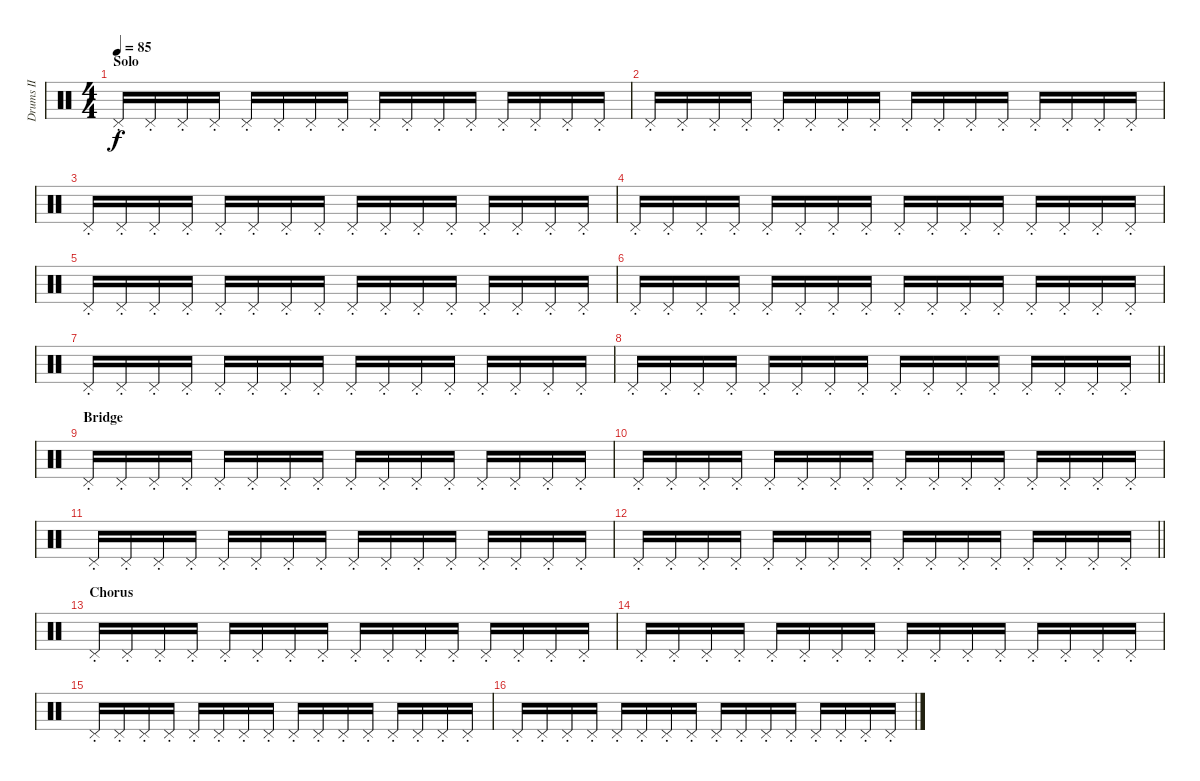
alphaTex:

\track ("Drums II" "Drums II") {instrument percussion}
\staff {score}
\articulation defaults
\ts (4 4)
\section ("" "Solo")
\tempo 85
\clef neutral
\ks c "Pedal Hi-Hat (hit)"{st}.16{dy f} "Pedal Hi-Hat (hit)"{st}.16 "Pedal Hi-Hat (hit)"{st}.16 "Pedal Hi-Hat (hit)"{st}.16 "Pedal Hi-Hat (hit)"{st}.16 "Pedal Hi-Hat (hit)"{st}.16 "Pedal Hi-Hat (hit)"{st}.16 "Pedal Hi-Hat (hit)"{st}.16 "Pedal Hi-Hat (hit)"{st}.16 "Pedal Hi-Hat (hit)"{st}.16 "Pedal Hi-Hat (hit)"{st}.16 "Pedal Hi-Hat (hit)"{st}.16 "Pedal Hi-Hat (hit)"{st}.16 "Pedal Hi-Hat (hit)"{st}.16 "Pedal Hi-Hat (hit)"{st}.16 "Pedal Hi-Hat (hit)"{st}.16
|
"Pedal Hi-Hat (hit)"{st}.16 "Pedal Hi-Hat (hit)"{st}.16 "Pedal Hi-Hat (hit)"{st}.16 "Pedal Hi-Hat (hit)"{st}.16 "Pedal Hi-Hat (hit)"{st}.16 "Pedal Hi-Hat (hit)"{st}.16 "Pedal Hi-Hat (hit)"{st}.16 "Pedal Hi-Hat (hit)"{st}.16 "Pedal Hi-Hat (hit)"{st}.16 "Pedal Hi-Hat (hit)"{st}.16 "Pedal Hi-Hat (hit)"{st}.16 "Pedal Hi-Hat (hit)"{st}.16 "Pedal Hi-Hat (hit)"{st}.16 "Pedal Hi-Hat (hit)"{st}.16 "Pedal Hi-Hat (hit)"{st}.16 "Pedal Hi-Hat (hit)"{st}.16 |
"Pedal Hi-Hat (hit)"{st}.16 "Pedal Hi-Hat (hit)"{st}.16 "Pedal Hi-Hat (hit)"{st}.16 "Pedal Hi-Hat (hit)"{st}.16 "Pedal Hi-Hat (hit)"{st}.16 "Pedal Hi-Hat (hit)"{st}.16 "Pedal Hi-Hat (hit)"{st}.16 "Pedal Hi-Hat (hit)"{st}.16 "Pedal Hi-Hat (hit)"{st}.16 "Pedal Hi-Hat (hit)"{st}.16 "Pedal Hi-Hat (hit)"{st}.16 "Pedal Hi-Hat (hit)"{st}.16 "Pedal Hi-Hat (hit)"{st}.16 "Pedal Hi-Hat (hit)"{st}.16 "Pedal Hi-Hat (hit)"{st}.16 "Pedal Hi-Hat (hit)"{st}.16 |
"Pedal Hi-Hat (hit)"{st}.16 "Pedal Hi-Hat (hit)"{st}.16 "Pedal Hi-Hat (hit)"{st}.16 "Pedal Hi-Hat (hit)"{st}.16 "Pedal Hi-Hat (hit)"{st}.16 "Pedal Hi-Hat (hit)"{st}.16 "Pedal Hi-Hat (hit)"{st}.16 "Pedal Hi-Hat (hit)"{st}.16 "Pedal Hi-Hat (hit)"{st}.16 "Pedal Hi-Hat (hit)"{st}.16 "Pedal Hi-Hat (hit)"{st}.16 "Pedal Hi-Hat (hit)"{st}.16 "Pedal Hi-Hat (hit)"{st}.16 "Pedal Hi-Hat (hit)"{st}.16 "Pedal Hi-Hat (hit)"{st}.16 "Pedal Hi-Hat (hit)"{st}.16 |
"Pedal Hi-Hat (hit)"{st}.16 "Pedal Hi-Hat (hit)"{st}.16 "Pedal Hi-Hat (hit)"{st}.16 "Pedal Hi-Hat (hit)"{st}.16 "Pedal Hi-Hat (hit)"{st}.16 "Pedal Hi-Hat (hit)"{st}.16 "Pedal Hi-Hat (hit)"{st}.16 "Pedal Hi-Hat (hit)"{st}.16 "Pedal Hi-Hat (hit)"{st}.16 "Pedal Hi-Hat (hit)"{st}.16 "Pedal Hi-Hat (hit)"{st}.16 "Pedal Hi-Hat (hit)"{st}.16 "Pedal Hi-Hat (hit)"{st}.16 "Pedal Hi-Hat (hit)"{st}.16 "Pedal Hi-Hat (hit)"{st}.16 "Pedal Hi-Hat (hit)"{st}.16 |
"Pedal Hi-Hat (hit)"{st}.16 "Pedal Hi-Hat (hit)"{st}.16 "Pedal Hi-Hat (hit)"{st}.16 "Pedal Hi-Hat (hit)"{st}.16 "Pedal Hi-Hat (hit)"{st}.16 "Pedal Hi-Hat (hit)"{st}.16 "Pedal Hi-Hat (hit)"{st}.16 "Pedal Hi-Hat (hit)"{st}.16 "Pedal Hi-Hat (hit)"{st}.16 "Pedal Hi-Hat (hit)"{st}.16 "Pedal Hi-Hat (hit)"{st}.16 "Pedal Hi-Hat (hit)"{st}.16 "Pedal Hi-Hat (hit)"{st}.16 "Pedal Hi-Hat (hit)"{st}.16 "Pedal Hi-Hat (hit)"{st}.16 "Pedal Hi-Hat (hit)"{st}.16 |
"Pedal Hi-Hat (hit)"{st}.16 "Pedal Hi-Hat (hit)"{st}.16 "Pedal Hi-Hat (hit)"{st}.16 "Pedal Hi-Hat (hit)"{st}.16 "Pedal Hi-Hat (hit)"{st}.16 "Pedal Hi-Hat (hit)"{st}.16 "Pedal Hi-Hat (hit)"{st}.16 "Pedal Hi-Hat (hit)"{st}.16 "Pedal Hi-Hat (hit)"{st}.16 "Pedal Hi-Hat (hit)"{st}.16 "Pedal Hi-Hat (hit)"{st}.16 "Pedal Hi-Hat (hit)"{st}.16 "Pedal Hi-Hat (hit)"{st}.16 "Pedal Hi-Hat (hit)"{st}.16 "Pedal Hi-Hat (hit)"{st}.16 "Pedal Hi-Hat (hit)"{st}.16 |
\barLineRight lightlight "Pedal Hi-Hat (hit)"{st}.16 "Pedal Hi-Hat (hit)"{st}.16 "Pedal Hi-Hat (hit)"{st}.16 "Pedal Hi-Hat (hit)"{st}.16 "Pedal Hi-Hat (hit)"{st}.16 "Pedal Hi-Hat (hit)"{st}.16 "Pedal Hi-Hat (hit)"{st}.16 "Pedal Hi-Hat (hit)"{st}.16 "Pedal Hi-Hat (hit)"{st}.16 "Pedal Hi-Hat (hit)"{st}.16 "Pedal Hi-Hat (hit)"{st}.16 "Pedal Hi-Hat (hit)"{st}.16 "Pedal Hi-Hat (hit)"{st}.16 "Pedal Hi-Hat (hit)"{st}.16 "Pedal Hi-Hat (hit)"{st}.16 "Pedal Hi-Hat (hit)"{st}.16
|
\section ("" "Bridge")
"Pedal Hi-Hat (hit)"{st}.16 "Pedal Hi-Hat (hit)"{st}.16 "Pedal Hi-Hat (hit)"{st}.16 "Pedal Hi-Hat (hit)"{st}.16 "Pedal Hi-Hat (hit)"{st}.16 "Pedal Hi-Hat (hit)"{st}.16 "Pedal Hi-Hat (hit)"{st}.16 "Pedal Hi-Hat (hit)"{st}.16 "Pedal Hi-Hat (hit)"{st}.16 "Pedal Hi-Hat (hit)"{st}.16 "Pedal Hi-Hat (hit)"{st}.16 "Pedal Hi-Hat (hit)"{st}.16 "Pedal Hi-Hat (hit)"{st}.16 "Pedal Hi-Hat (hit)"{st}.16 "Pedal Hi-Hat (hit)"{st}.16 "Pedal Hi-Hat (hit)"{st}.16 |
"Pedal Hi-Hat (hit)"{st}.16 "Pedal Hi-Hat (hit)"{st}.16 "Pedal Hi-Hat (hit)"{st}.16 "Pedal Hi-Hat (hit)"{st}.16 "Pedal Hi-Hat (hit)"{st}.16 "Pedal Hi-Hat (hit)"{st}.16 "Pedal Hi-Hat (hit)"{st}.16 "Pedal Hi-Hat (hit)"{st}.16 "Pedal Hi-Hat (hit)"{st}.16 "Pedal Hi-Hat (hit)"{st}.16 "Pedal Hi-Hat (hit)"{st}.16 "Pedal Hi-Hat (hit)"{st}.16 "Pedal Hi-Hat (hit)"{st}.16 "Pedal Hi-Hat (hit)"{st}.16 "Pedal Hi-Hat (hit)"{st}.16 "Pedal Hi-Hat (hit)"{st}.16 |
"Pedal Hi-Hat (hit)"{st}.16 "Pedal Hi-Hat (hit)"{st}.16 "Pedal Hi-Hat (hit)"{st}.16 "Pedal Hi-Hat (hit)"{st}.16 "Pedal Hi-Hat (hit)"{st}.16 "Pedal Hi-Hat (hit)"{st}.16 "Pedal Hi-Hat (hit)"{st}.16 "Pedal Hi-Hat (hit)"{st}.16 "Pedal Hi-Hat (hit)"{st}.16 "Pedal Hi-Hat (hit)"{st}.16 "Pedal Hi-Hat (hit)"{st}.16 "Pedal Hi-Hat (hit)"{st}.16 "Pedal Hi-Hat (hit)"{st}.16 "Pedal Hi-Hat (hit)"{st}.16 "Pedal Hi-Hat (hit)"{st}.16 "Pedal Hi-Hat (hit)"{st}.16 |
\barLineRight lightlight "Pedal Hi-Hat (hit)"{st}.16 "Pedal Hi-Hat (hit)"{st}.16 "Pedal Hi-Hat (hit)"{st}.16 "Pedal Hi-Hat (hit)"{st}.16 "Pedal Hi-Hat (hit)"{st}.16 "Pedal Hi-Hat (hit)"{st}.16 "Pedal Hi-Hat (hit)"{st}.16 "Pedal Hi-Hat (hit)"{st}.16 "Pedal Hi-Hat (hit)"{st}.16 "Pedal Hi-Hat (hit)"{st}.16 "Pedal Hi-Hat (hit)"{st}.16 "Pedal Hi-Hat (hit)"{st}.16 "Pedal Hi-Hat (hit)"{st}.16 "Pedal Hi-Hat (hit)"{st}.16 "Pedal Hi-Hat (hit)"{st}.16 "Pedal Hi-Hat (hit)"{st}.16
|
\section ("" "Chorus")
"Pedal Hi-Hat (hit)"{st}.16 "Pedal Hi-Hat (hit)"{st}.16 "Pedal Hi-Hat (hit)"{st}.16 "Pedal Hi-Hat (hit)"{st}.16 "Pedal Hi-Hat (hit)"{st}.16 "Pedal Hi-Hat (hit)"{st}.16 "Pedal Hi-Hat (hit)"{st}.16 "Pedal Hi-Hat (hit)"{st}.16 "Pedal Hi-Hat (hit)"{st}.16 "Pedal Hi-Hat (hit)"{st}.16 "Pedal Hi-Hat (hit)"{st}.16 "Pedal Hi-Hat (hit)"{st}.16 "Pedal Hi-Hat (hit)"{st}.16 "Pedal Hi-Hat (hit)"{st}.16 "Pedal Hi-Hat (hit)"{st}.16 "Pedal Hi-Hat (hit)"{st}.16 |
"Pedal Hi-Hat (hit)"{st}.16 "Pedal Hi-Hat (hit)"{st}.16 "Pedal Hi-Hat (hit)"{st}.16 "Pedal Hi-Hat (hit)"{st}.16 "Pedal Hi-Hat (hit)"{st}.16 "Pedal Hi-Hat (hit)"{st}.16 "Pedal Hi-Hat (hit)"{st}.16 "Pedal Hi-Hat (hit)"{st}.16 "Pedal Hi-Hat (hit)"{st}.16 "Pedal Hi-Hat (hit)"{st}.16 "Pedal Hi-Hat (hit)"{st}.16 "Pedal Hi-Hat (hit)"{st}.16 "Pedal Hi-Hat (hit)"{st}.16 "Pedal Hi-Hat (hit)"{st}.16 "Pedal Hi-Hat (hit)"{st}.16 "Pedal Hi-Hat (hit)"{st}.16 |
"Pedal Hi-Hat (hit)"{st}.16 "Pedal Hi-Hat (hit)"{st}.16 "Pedal Hi-Hat (hit)"{st}.16 "Pedal Hi-Hat (hit)"{st}.16 "Pedal Hi-Hat (hit)"{st}.16 "Pedal Hi-Hat (hit)"{st}.16 "Pedal Hi-Hat (hit)"{st}.16 "Pedal Hi-Hat (hit)"{st}.16 "Pedal Hi-Hat (hit)"{st}.16 "Pedal Hi-Hat (hit)"{st}.16 "Pedal Hi-Hat (hit)"{st}.16 "Pedal Hi-Hat (hit)"{st}.16 "Pedal Hi-Hat (hit)"{st}.16 "Pedal Hi-Hat (hit)"{st}.16 "Pedal Hi-Hat (hit)"{st}.16 "Pedal Hi-Hat (hit)"{st}.16 |
"Pedal Hi-Hat (hit)"{st}.16 "Pedal Hi-Hat (hit)"{st}.16 "Pedal Hi-Hat (hit)"{st}.16 "Pedal Hi-Hat (hit)"{st}.16 "Pedal Hi-Hat (hit)"{st}.16 "Pedal Hi-Hat (hit)"{st}.16 "Pedal Hi-Hat (hit)"{st}.16 "Pedal Hi-Hat (hit)"{st}.16 "Pedal Hi-Hat (hit)"{st}.16 "Pedal Hi-Hat (hit)"{st}.16 "Pedal Hi-Hat (hit)"{st}.16 "Pedal Hi-Hat (hit)"{st}.16 "Pedal Hi-Hat (hit)"{st}.16 "Pedal Hi-Hat (hit)"{st}.16 "Pedal Hi-Hat (hit)"{st}.16 "Pedal Hi-Hat (hit)"{st}.16
